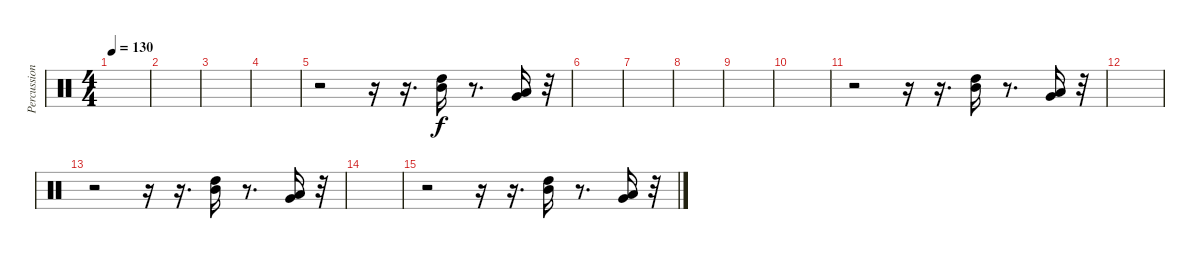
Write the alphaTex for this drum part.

\track ("Percussion" "Percussion") {instrument percussion bank 177}
\staff {score}
\articulation defaults
\ts (4 4)
\tempo 130
\clef neutral
\ks c
|
|
|
|
r.2 r.16 r.16{d} ("High Tom (hit)" "Mid Tom (hit)").16 r.8{d} ("Low Tom (hit)" "Very Low Tom (hit)").16 r.32 |
|
|
|
|
|
r.2 r.16 r.16{d} ("High Tom (hit)" "Mid Tom (hit)").16 r.8{d} ("Low Tom (hit)" "Very Low Tom (hit)").16 r.32 |
|
r.2 r.16 r.16{d} ("High Tom (hit)" "Mid Tom (hit)").16 r.8{d} ("Low Tom (hit)" "Very Low Tom (hit)").16 r.32 |
|
r.2 r.16 r.16{d} ("High Tom (hit)" "Mid Tom (hit)").16 r.8{d} ("Low Tom (hit)" "Very Low Tom (hit)").16 r.32
